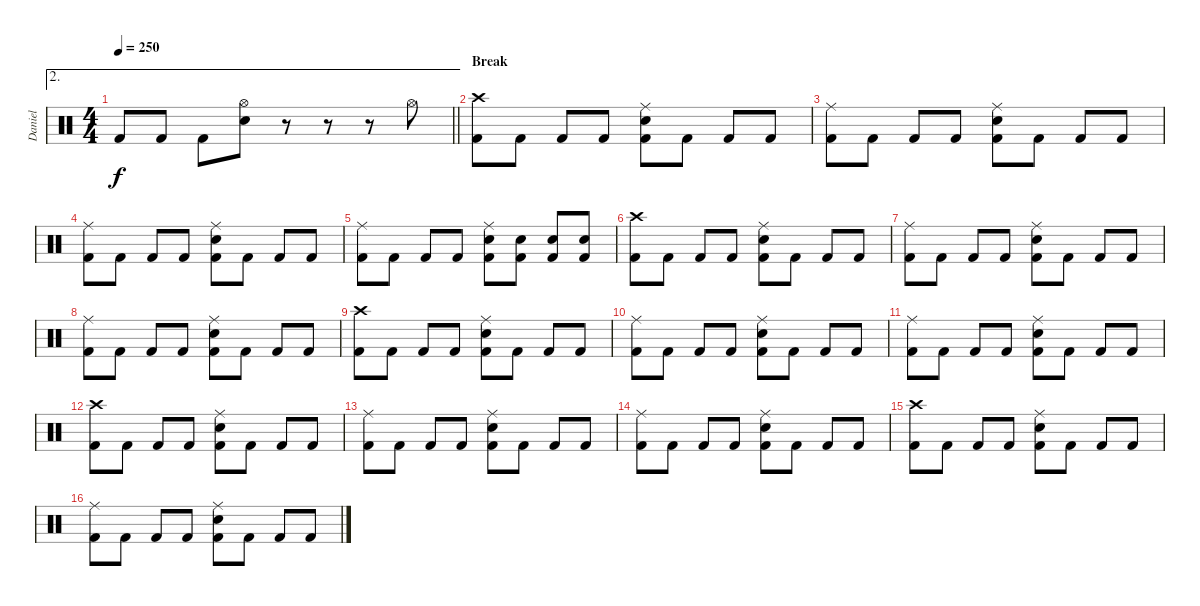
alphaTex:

\track ("Daniel" "Daniel") {instrument percussion}
\staff {score}
\articulation defaults
\ae 2
\ts (4 4)
\tempo 250
\clef neutral
\barLineRight lightlight
\ks c "Kick (hit) 2".8{dy f} "Kick (hit) 2".8 "Kick (hit) 2".8
("Hi-Hat (open)" "Snare (hit) 2").8 r.8 r.8 r.8 "Hi-Hat (open)".8 |
\section ("" "Break")
("Crash high (hit)" "Kick (hit) 2").8 "Kick (hit) 2".8 "Kick (hit) 2".8 "Kick (hit) 2".8 ("Ride (middle)" "Snare (hit) 2" "Kick (hit) 2").8 "Kick (hit) 2".8 "Kick (hit) 2".8 "Kick (hit) 2".8 |
("Ride (middle)" "Kick (hit) 2").8 "Kick (hit) 2".8 "Kick (hit) 2".8 "Kick (hit) 2".8 ("Ride (middle)" "Snare (hit) 2" "Kick (hit) 2").8 "Kick (hit) 2".8 "Kick (hit) 2".8 "Kick (hit) 2".8 |
("Ride (middle)" "Kick (hit) 2").8 "Kick (hit) 2".8 "Kick (hit) 2".8 "Kick (hit) 2".8 ("Ride (middle)" "Snare (hit) 2" "Kick (hit) 2").8 "Kick (hit) 2".8 "Kick (hit) 2".8 "Kick (hit) 2".8 |
("Ride (middle)" "Kick (hit) 2").8 "Kick (hit) 2".8 "Kick (hit) 2".8 "Kick (hit) 2".8 ("Ride (middle)" "Snare (hit) 2" "Kick (hit) 2").8 ("Snare (hit) 2" "Kick (hit) 2").8 ("Snare (hit) 2" "Kick (hit) 2").8 ("Snare (hit) 2" "Kick (hit) 2").8 |
("Crash high (hit)" "Kick (hit) 2").8 "Kick (hit) 2".8 "Kick (hit) 2".8 "Kick (hit) 2".8 ("Ride (middle)" "Snare (hit) 2" "Kick (hit) 2").8 "Kick (hit) 2".8 "Kick (hit) 2".8 "Kick (hit) 2".8 |
("Ride (middle)" "Kick (hit) 2").8 "Kick (hit) 2".8 "Kick (hit) 2".8 "Kick (hit) 2".8 ("Ride (middle)" "Snare (hit) 2" "Kick (hit) 2").8 "Kick (hit) 2".8 "Kick (hit) 2".8 "Kick (hit) 2".8 |
("Ride (middle)" "Kick (hit) 2").8 "Kick (hit) 2".8 "Kick (hit) 2".8 "Kick (hit) 2".8 ("Ride (middle)" "Snare (hit) 2" "Kick (hit) 2").8 "Kick (hit) 2".8 "Kick (hit) 2".8 "Kick (hit) 2".8 |
("Crash high (hit)" "Kick (hit) 2").8 "Kick (hit) 2".8 "Kick (hit) 2".8 "Kick (hit) 2".8 ("Ride (middle)" "Snare (hit) 2" "Kick (hit) 2").8 "Kick (hit) 2".8 "Kick (hit) 2".8 "Kick (hit) 2".8 |
("Ride (middle)" "Kick (hit) 2").8 "Kick (hit) 2".8 "Kick (hit) 2".8 "Kick (hit) 2".8 ("Ride (middle)" "Snare (hit) 2" "Kick (hit) 2").8 "Kick (hit) 2".8 "Kick (hit) 2".8 "Kick (hit) 2".8 |
("Ride (middle)" "Kick (hit) 2").8 "Kick (hit) 2".8 "Kick (hit) 2".8 "Kick (hit) 2".8 ("Ride (middle)" "Snare (hit) 2" "Kick (hit) 2").8 "Kick (hit) 2".8 "Kick (hit) 2".8 "Kick (hit) 2".8 |
("Crash high (hit)" "Kick (hit) 2").8 "Kick (hit) 2".8 "Kick (hit) 2".8 "Kick (hit) 2".8 ("Ride (middle)" "Snare (hit) 2" "Kick (hit) 2").8 "Kick (hit) 2".8 "Kick (hit) 2".8 "Kick (hit) 2".8 |
("Ride (middle)" "Kick (hit) 2").8 "Kick (hit) 2".8 "Kick (hit) 2".8 "Kick (hit) 2".8 ("Ride (middle)" "Snare (hit) 2" "Kick (hit) 2").8 "Kick (hit) 2".8 "Kick (hit) 2".8 "Kick (hit) 2".8 |
("Ride (middle)" "Kick (hit) 2").8 "Kick (hit) 2".8 "Kick (hit) 2".8 "Kick (hit) 2".8 ("Ride (middle)" "Snare (hit) 2" "Kick (hit) 2").8 "Kick (hit) 2".8 "Kick (hit) 2".8 "Kick (hit) 2".8 |
("Crash high (hit)" "Kick (hit) 2").8 "Kick (hit) 2".8 "Kick (hit) 2".8 "Kick (hit) 2".8 ("Ride (middle)" "Snare (hit) 2" "Kick (hit) 2").8 "Kick (hit) 2".8 "Kick (hit) 2".8 "Kick (hit) 2".8 |
("Ride (middle)" "Kick (hit) 2").8 "Kick (hit) 2".8 "Kick (hit) 2".8 "Kick (hit) 2".8 ("Ride (middle)" "Snare (hit) 2" "Kick (hit) 2").8 "Kick (hit) 2".8 "Kick (hit) 2".8 "Kick (hit) 2".8
